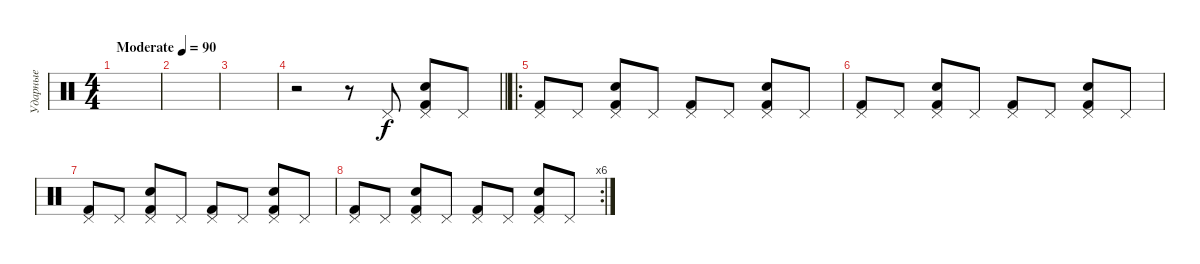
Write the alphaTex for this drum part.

\track ("Ударные" "Ударные") {instrument percussion}
\staff {score}
\articulation defaults
\ts (4 4)
\tempo (90 "Moderate")
\clef neutral
\ks c
|
|
|
\barLineRight lightlight
r.2 r.8 "Pedal Hi-Hat (hit)".8 ("Pedal Hi-Hat (hit)" "Kick (hit) 2" "Snare (hit) 2").8 "Pedal Hi-Hat (hit)".8 |
\ro
("Pedal Hi-Hat (hit)" "Kick (hit) 2").8 "Pedal Hi-Hat (hit)".8 ("Pedal Hi-Hat (hit)" "Kick (hit) 2" "Snare (hit) 2").8 "Pedal Hi-Hat (hit)".8 ("Pedal Hi-Hat (hit)" "Kick (hit) 2").8 "Pedal Hi-Hat (hit)".8 ("Pedal Hi-Hat (hit)" "Kick (hit) 2" "Snare (hit) 2").8 "Pedal Hi-Hat (hit)".8 |
("Pedal Hi-Hat (hit)" "Kick (hit) 2").8 "Pedal Hi-Hat (hit)".8 ("Pedal Hi-Hat (hit)" "Kick (hit) 2" "Snare (hit) 2").8 "Pedal Hi-Hat (hit)".8 ("Pedal Hi-Hat (hit)" "Kick (hit) 2").8 "Pedal Hi-Hat (hit)".8 ("Pedal Hi-Hat (hit)" "Kick (hit) 2" "Snare (hit) 2").8 "Pedal Hi-Hat (hit)".8 |
("Pedal Hi-Hat (hit)" "Kick (hit) 2").8 "Pedal Hi-Hat (hit)".8 ("Pedal Hi-Hat (hit)" "Kick (hit) 2" "Snare (hit) 2").8 "Pedal Hi-Hat (hit)".8 ("Pedal Hi-Hat (hit)" "Kick (hit) 2").8 "Pedal Hi-Hat (hit)".8 ("Pedal Hi-Hat (hit)" "Kick (hit) 2" "Snare (hit) 2").8 "Pedal Hi-Hat (hit)".8 |
\rc 6
("Pedal Hi-Hat (hit)" "Kick (hit) 2").8 "Pedal Hi-Hat (hit)".8 ("Pedal Hi-Hat (hit)" "Kick (hit) 2" "Snare (hit) 2").8 "Pedal Hi-Hat (hit)".8 ("Pedal Hi-Hat (hit)" "Kick (hit) 2").8 "Pedal Hi-Hat (hit)".8 ("Pedal Hi-Hat (hit)" "Kick (hit) 2" "Snare (hit) 2").8 "Pedal Hi-Hat (hit)".8
